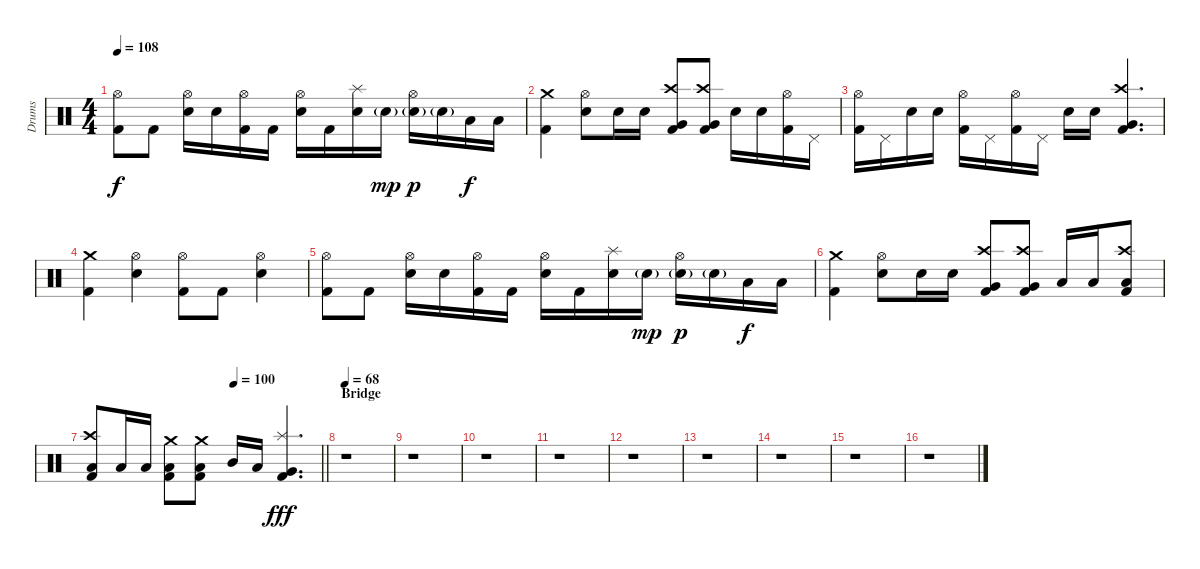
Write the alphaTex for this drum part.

\track ("Drums" "Drums") {instrument percussion}
\staff {score}
\articulation defaults
\ts (4 4)
\tempo 108
\clef neutral
\ks c
("Hi-Hat (open)" "Kick (hit) 2").8{dy f} "Kick (hit) 2".8 ("Hi-Hat (open)" "Electric Snare (hit)").16 "Electric Snare (hit)".16 ("Hi-Hat (open)" "Kick (hit) 2").16 "Kick (hit) 2".16 ("Hi-Hat (open)" "Electric Snare (hit)").16 "Kick (hit) 2".16 ("Splash (hit)" "Electric Snare (hit)").16 "Electric Snare (hit)"{g}.16{dy mp} ("Hi-Hat (open)" "Electric Snare (hit)"{g}).16{dy p} "Electric Snare (hit)"{g}.16 "Low Tom (hit)".16{dy f} "Low Tom (hit)".16 |
("Crash medium (hit)" "Kick (hit) 2").4 ("Hi-Hat (open)" "Electric Snare (hit)").8 "Electric Snare (hit)".16 "Electric Snare (hit)".16 ("Crash high (hit)" "Very Low Tom (hit)" "Kick (hit) 2").8 ("Crash high (hit)" "Very Low Tom (hit)" "Kick (hit) 2").8 "Electric Snare (hit)".16 "Electric Snare (hit)".16 ("Hi-Hat (open)" "Kick (hit) 2").16 "Pedal Hi-Hat (hit)".16 |
("Hi-Hat (open)" "Kick (hit) 2").16 "Pedal Hi-Hat (hit)".16 "Electric Snare (hit)".16 "Electric Snare (hit)".16 ("Hi-Hat (open)" "Kick (hit) 2").16 "Pedal Hi-Hat (hit)".16 ("Hi-Hat (open)" "Kick (hit) 2").16 "Pedal Hi-Hat (hit)".16 "Electric Snare (hit)".16 "Electric Snare (hit)".16 ("Crash high (hit)" "Very Low Tom (hit)" "Kick (hit) 2").4{d} |
("Crash medium (hit)" "Kick (hit) 2").4 ("Hi-Hat (open)" "Electric Snare (hit)").4 ("Hi-Hat (open)" "Kick (hit) 2").8 "Kick (hit) 2".8 ("Hi-Hat (open)" "Electric Snare (hit)").4 |
("Hi-Hat (open)" "Kick (hit) 2").8 "Kick (hit) 2".8 ("Hi-Hat (open)" "Electric Snare (hit)").16 "Electric Snare (hit)".16 ("Hi-Hat (open)" "Kick (hit) 2").16 "Kick (hit) 2".16 ("Hi-Hat (open)" "Electric Snare (hit)").16 "Kick (hit) 2".16 ("Splash (hit)" "Electric Snare (hit)").16 "Electric Snare (hit)"{g}.16{dy mp} ("Hi-Hat (open)" "Electric Snare (hit)"{g}).16{dy p} "Electric Snare (hit)"{g}.16 "Low Tom (hit)".16{dy f} "Low Tom (hit)".16 |
("Crash medium (hit)" "Kick (hit) 2").4 ("Hi-Hat (open)" "Electric Snare (hit)").8 "Electric Snare (hit)".16 "Electric Snare (hit)".16 ("Crash high (hit)" "Very Low Tom (hit)" "Kick (hit) 2").8 ("Crash high (hit)" "Very Low Tom (hit)" "Kick (hit) 2").8 "Low Floor Tom (hit)".16 "Low Floor Tom (hit)".16 ("Crash high (hit)" "Low Floor Tom (hit)" "Kick (hit) 2").8 |
\tempo (100 0.625)
\barLineRight lightlight
("Crash high (hit)" "Low Floor Tom (hit)" "Kick (hit) 2").8 "Low Tom (hit)".16 "Low Tom (hit)".16 ("Crash medium (hit)" "Low Tom (hit)" "Kick (hit) 2").8 ("Crash medium (hit)" "Low Tom (hit)" "Kick (hit) 2").8 "Mid Tom (hit)".16 "Low Tom (hit)".16 ("Splash (hit)" "Very Low Tom (hit)" "Kick (hit) 2").4{d dy fff} |
\section ("" "Bridge")
\tempo 68
r.1 |
r.1 |
r.1 |
r.1 |
r.1 |
r.1 |
r.1 |
r.1 |
r.1
